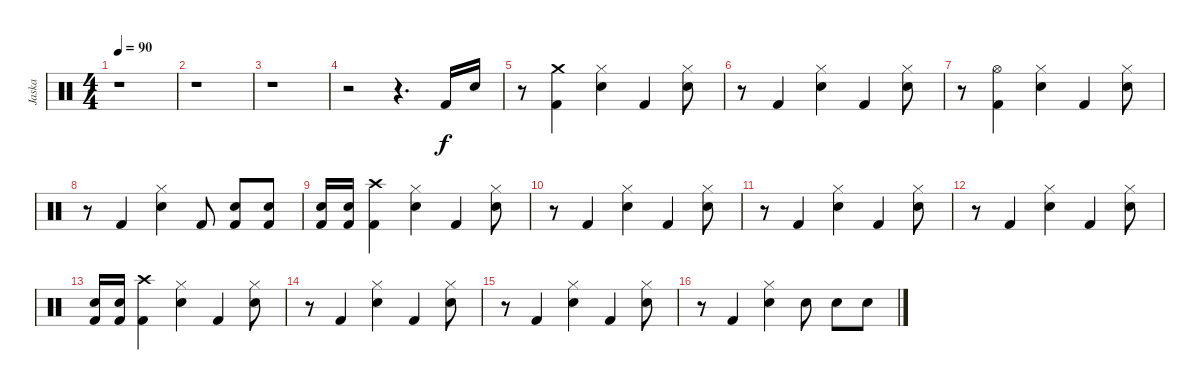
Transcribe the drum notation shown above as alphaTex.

\track ("Jaska" "Jaska") {instrument percussion}
\staff {score}
\articulation defaults
\ts (4 4)
\tempo 90
\clef neutral
\ks c
r.1{dy f} |
r.1 |
r.1 |
r.2 r.4{d} "Kick (hit) 2".16 "Electric Snare (hit)".16 |
r.8 ("Kick (hit) 2" "Crash medium (hit)").4 ("Electric Snare (hit)" "Hi-Hat (closed)").4 "Kick (hit) 2".4 ("Electric Snare (hit)" "Hi-Hat (closed)").8 |
r.8 "Kick (hit) 2".4 ("Electric Snare (hit)" "Hi-Hat (closed)").4 "Kick (hit) 2".4 ("Electric Snare (hit)" "Hi-Hat (closed)").8 |
r.8 ("Kick (hit) 2" "Hi-Hat (open)").4 ("Electric Snare (hit)" "Hi-Hat (closed)").4 "Kick (hit) 2".4 ("Electric Snare (hit)" "Hi-Hat (closed)").8 |
r.8 "Kick (hit) 2".4 ("Electric Snare (hit)" "Hi-Hat (closed)").4 "Kick (hit) 2".8 ("Kick (hit) 2" "Electric Snare (hit)").8 ("Kick (hit) 2" "Electric Snare (hit)").8 |
("Kick (hit) 2" "Electric Snare (hit)").16 ("Kick (hit) 2" "Electric Snare (hit)").16 ("Kick (hit) 2" "Crash high (hit)").4 ("Electric Snare (hit)" "Hi-Hat (closed)").4 "Kick (hit) 2".4 ("Electric Snare (hit)" "Hi-Hat (closed)").8 |
r.8 "Kick (hit) 2".4 ("Electric Snare (hit)" "Hi-Hat (closed)").4 "Kick (hit) 2".4 ("Electric Snare (hit)" "Hi-Hat (closed)").8 |
r.8 "Kick (hit) 2".4 ("Electric Snare (hit)" "Hi-Hat (closed)").4 "Kick (hit) 2".4 ("Electric Snare (hit)" "Hi-Hat (closed)").8 |
r.8 "Kick (hit) 2".4 ("Electric Snare (hit)" "Hi-Hat (closed)").4 "Kick (hit) 2".4 ("Electric Snare (hit)" "Hi-Hat (closed)").8 |
("Kick (hit) 2" "Electric Snare (hit)").16 ("Kick (hit) 2" "Electric Snare (hit)").16 ("Kick (hit) 2" "Crash high (hit)").4 ("Electric Snare (hit)" "Hi-Hat (closed)").4 "Kick (hit) 2".4 ("Electric Snare (hit)" "Hi-Hat (closed)").8 |
r.8 "Kick (hit) 2".4 ("Electric Snare (hit)" "Hi-Hat (closed)").4 "Kick (hit) 2".4 ("Electric Snare (hit)" "Hi-Hat (closed)").8 |
r.8 "Kick (hit) 2".4 ("Electric Snare (hit)" "Hi-Hat (closed)").4 "Kick (hit) 2".4 ("Electric Snare (hit)" "Hi-Hat (closed)").8 |
r.8 "Kick (hit) 2".4 ("Electric Snare (hit)" "Hi-Hat (closed)").4 "Electric Snare (hit)".8 "Electric Snare (hit)".8 "Electric Snare (hit)".8
